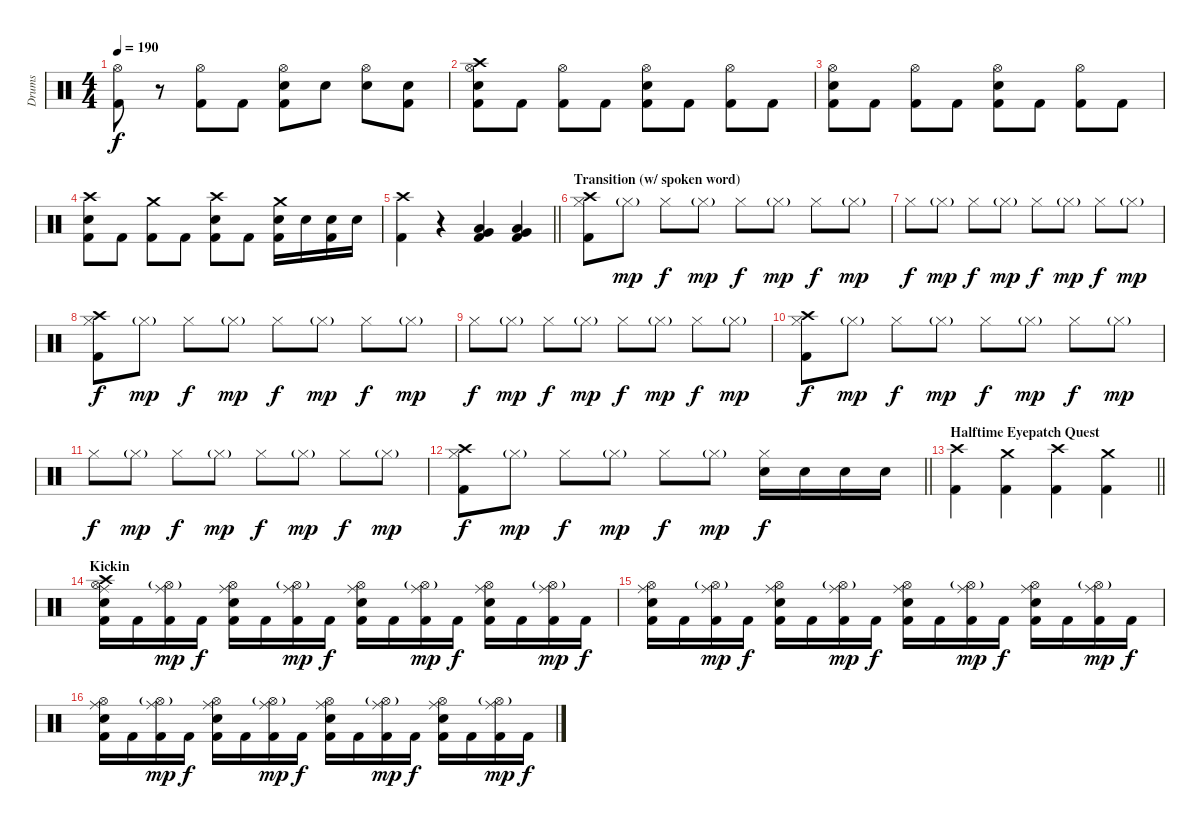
\track ("Drums" "Drums") {instrument percussion}
\staff {score}
\articulation defaults
\ts (4 4)
\tempo 190
\clef neutral
\ks c
("Hi-Hat (open)" "Kick (hit) 2").8{dy f} r.8 ("Hi-Hat (open)" "Kick (hit) 2").8 "Kick (hit) 2".8 ("Hi-Hat (open)" "Snare (hit) 2" "Kick (hit) 2").8 "Snare (hit) 2".8 ("Hi-Hat (open)" "Snare (hit) 2").8 ("Snare (hit) 2" "Kick (hit) 2").8 |
("Crash high (hit)" "Hi-Hat (open)" "Snare (hit) 2" "Kick (hit) 2").8 "Kick (hit) 2".8 ("Hi-Hat (open)" "Kick (hit) 2").8 "Kick (hit) 2".8 ("Hi-Hat (open)" "Snare (hit) 2" "Kick (hit) 2").8 "Kick (hit) 2".8 ("Hi-Hat (open)" "Kick (hit) 2").8 "Kick (hit) 2".8 |
("Hi-Hat (open)" "Snare (hit) 2" "Kick (hit) 2").8 "Kick (hit) 2".8 ("Hi-Hat (open)" "Kick (hit) 2").8 "Kick (hit) 2".8 ("Hi-Hat (open)" "Snare (hit) 2" "Kick (hit) 2").8 "Kick (hit) 2".8 ("Hi-Hat (open)" "Kick (hit) 2").8 "Kick (hit) 2".8 |
("Crash high (hit)" "Snare (hit) 2" "Kick (hit) 2").8 "Kick (hit) 2".8 ("Crash medium (hit)" "Kick (hit) 2").8 "Kick (hit) 2".8 ("Crash high (hit)" "Snare (hit) 2" "Kick (hit) 2").8 "Kick (hit) 2".8 ("Crash medium (hit)" "Snare (hit) 2" "Kick (hit) 2").16 "Snare (hit) 2".16 ("Snare (hit) 2" "Kick (hit) 2").16 "Snare (hit) 2".16 |
\barLineRight lightlight
("Crash high (hit)" "Kick (hit) 2").4 r.4 ("Very Low Tom (hit)" "Low Floor Tom (hit)" "Kick (hit) 2").4 ("Very Low Tom (hit)" "Low Floor Tom (hit)" "Kick (hit) 2").4 |
\section ("" "Transition (w/ spoken word) ")
("Crash high (hit)" "Hi-Hat (closed)" "Kick (hit) 2").8 "Hi-Hat (closed)"{g}.8{dy mp} "Hi-Hat (closed)".8{dy f} "Hi-Hat (closed)"{g}.8{dy mp} "Hi-Hat (closed)".8{dy f} "Hi-Hat (closed)"{g}.8{dy mp} "Hi-Hat (closed)".8{dy f} "Hi-Hat (closed)"{g}.8{dy mp} |
"Hi-Hat (closed)".8{dy f} "Hi-Hat (closed)"{g}.8{dy mp} "Hi-Hat (closed)".8{dy f} "Hi-Hat (closed)"{g}.8{dy mp} "Hi-Hat (closed)".8{dy f} "Hi-Hat (closed)"{g}.8{dy mp} "Hi-Hat (closed)".8{dy f} "Hi-Hat (closed)"{g}.8{dy mp} |
("Crash high (hit)" "Hi-Hat (closed)" "Kick (hit) 2").8{dy f} "Hi-Hat (closed)"{g}.8{dy mp} "Hi-Hat (closed)".8{dy f} "Hi-Hat (closed)"{g}.8{dy mp} "Hi-Hat (closed)".8{dy f} "Hi-Hat (closed)"{g}.8{dy mp} "Hi-Hat (closed)".8{dy f} "Hi-Hat (closed)"{g}.8{dy mp} |
"Hi-Hat (closed)".8{dy f} "Hi-Hat (closed)"{g}.8{dy mp} "Hi-Hat (closed)".8{dy f} "Hi-Hat (closed)"{g}.8{dy mp} "Hi-Hat (closed)".8{dy f} "Hi-Hat (closed)"{g}.8{dy mp} "Hi-Hat (closed)".8{dy f} "Hi-Hat (closed)"{g}.8{dy mp} |
("Crash high (hit)" "Hi-Hat (closed)" "Kick (hit) 2").8{dy f} "Hi-Hat (closed)"{g}.8{dy mp} "Hi-Hat (closed)".8{dy f} "Hi-Hat (closed)"{g}.8{dy mp} "Hi-Hat (closed)".8{dy f} "Hi-Hat (closed)"{g}.8{dy mp} "Hi-Hat (closed)".8{dy f} "Hi-Hat (closed)"{g}.8{dy mp} |
"Hi-Hat (closed)".8{dy f} "Hi-Hat (closed)"{g}.8{dy mp} "Hi-Hat (closed)".8{dy f} "Hi-Hat (closed)"{g}.8{dy mp} "Hi-Hat (closed)".8{dy f} "Hi-Hat (closed)"{g}.8{dy mp} "Hi-Hat (closed)".8{dy f} "Hi-Hat (closed)"{g}.8{dy mp} |
\barLineRight lightlight
("Crash high (hit)" "Hi-Hat (closed)" "Kick (hit) 2").8{dy f} "Hi-Hat (closed)"{g}.8{dy mp} "Hi-Hat (closed)".8{dy f} "Hi-Hat (closed)"{g}.8{dy mp} "Hi-Hat (closed)".8{dy f} "Hi-Hat (closed)"{g}.8{dy mp} ("Hi-Hat (closed)" "Snare (hit) 2").16{dy f} "Snare (hit) 2".16 "Snare (hit) 2".16 "Snare (hit) 2".16 |
\section ("" "Halftime Eyepatch Quest")
\barLineRight lightlight
("Crash high (hit)" "Kick (hit) 2").4 ("Crash medium (hit)" "Kick (hit) 2").4 ("Crash high (hit)" "Kick (hit) 2").4 ("Crash medium (hit)" "Kick (hit) 2").4 |
\section ("" "Kickin")
("Crash high (hit)" "Ride (middle)" "Hi-Hat (open)" "Snare (hit) 2" "Kick (hit) 2").16 "Kick (hit) 2".16 ("Ride (middle)" "Hi-Hat (open)"{g} "Kick (hit) 2").16{dy mp} "Kick (hit) 2".16{dy f} ("Ride (middle)" "Hi-Hat (open)" "Snare (hit) 2" "Kick (hit) 2").16 "Kick (hit) 2".16 ("Ride (middle)" "Hi-Hat (open)"{g} "Kick (hit) 2").16{dy mp} "Kick (hit) 2".16{dy f} ("Ride (middle)" "Hi-Hat (open)" "Snare (hit) 2" "Kick (hit) 2").16 "Kick (hit) 2".16 ("Ride (middle)" "Hi-Hat (open)"{g} "Kick (hit) 2").16{dy mp} "Kick (hit) 2".16{dy f} ("Ride (middle)" "Hi-Hat (open)" "Snare (hit) 2" "Kick (hit) 2").16 "Kick (hit) 2".16 ("Ride (middle)" "Hi-Hat (open)"{g} "Kick (hit) 2").16{dy mp} "Kick (hit) 2".16{dy f} |
("Ride (middle)" "Hi-Hat (open)" "Snare (hit) 2" "Kick (hit) 2").16 "Kick (hit) 2".16 ("Ride (middle)" "Hi-Hat (open)"{g} "Kick (hit) 2").16{dy mp} "Kick (hit) 2".16{dy f} ("Ride (middle)" "Hi-Hat (open)" "Snare (hit) 2" "Kick (hit) 2").16 "Kick (hit) 2".16 ("Ride (middle)" "Hi-Hat (open)"{g} "Kick (hit) 2").16{dy mp} "Kick (hit) 2".16{dy f} ("Ride (middle)" "Hi-Hat (open)" "Snare (hit) 2" "Kick (hit) 2").16 "Kick (hit) 2".16 ("Ride (middle)" "Hi-Hat (open)"{g} "Kick (hit) 2").16{dy mp} "Kick (hit) 2".16{dy f} ("Ride (middle)" "Hi-Hat (open)" "Snare (hit) 2" "Kick (hit) 2").16 "Kick (hit) 2".16 ("Ride (middle)" "Hi-Hat (open)"{g} "Kick (hit) 2").16{dy mp} "Kick (hit) 2".16{dy f} |
("Ride (middle)" "Hi-Hat (open)" "Snare (hit) 2" "Kick (hit) 2").16 "Kick (hit) 2".16 ("Ride (middle)" "Hi-Hat (open)"{g} "Kick (hit) 2").16{dy mp} "Kick (hit) 2".16{dy f} ("Ride (middle)" "Hi-Hat (open)" "Snare (hit) 2" "Kick (hit) 2").16 "Kick (hit) 2".16 ("Ride (middle)" "Hi-Hat (open)"{g} "Kick (hit) 2").16{dy mp} "Kick (hit) 2".16{dy f} ("Ride (middle)" "Hi-Hat (open)" "Snare (hit) 2" "Kick (hit) 2").16 "Kick (hit) 2".16 ("Ride (middle)" "Hi-Hat (open)"{g} "Kick (hit) 2").16{dy mp} "Kick (hit) 2".16{dy f} ("Ride (middle)" "Hi-Hat (open)" "Snare (hit) 2" "Kick (hit) 2").16 "Kick (hit) 2".16 ("Ride (middle)" "Hi-Hat (open)"{g} "Kick (hit) 2").16{dy mp} "Kick (hit) 2".16{dy f}
